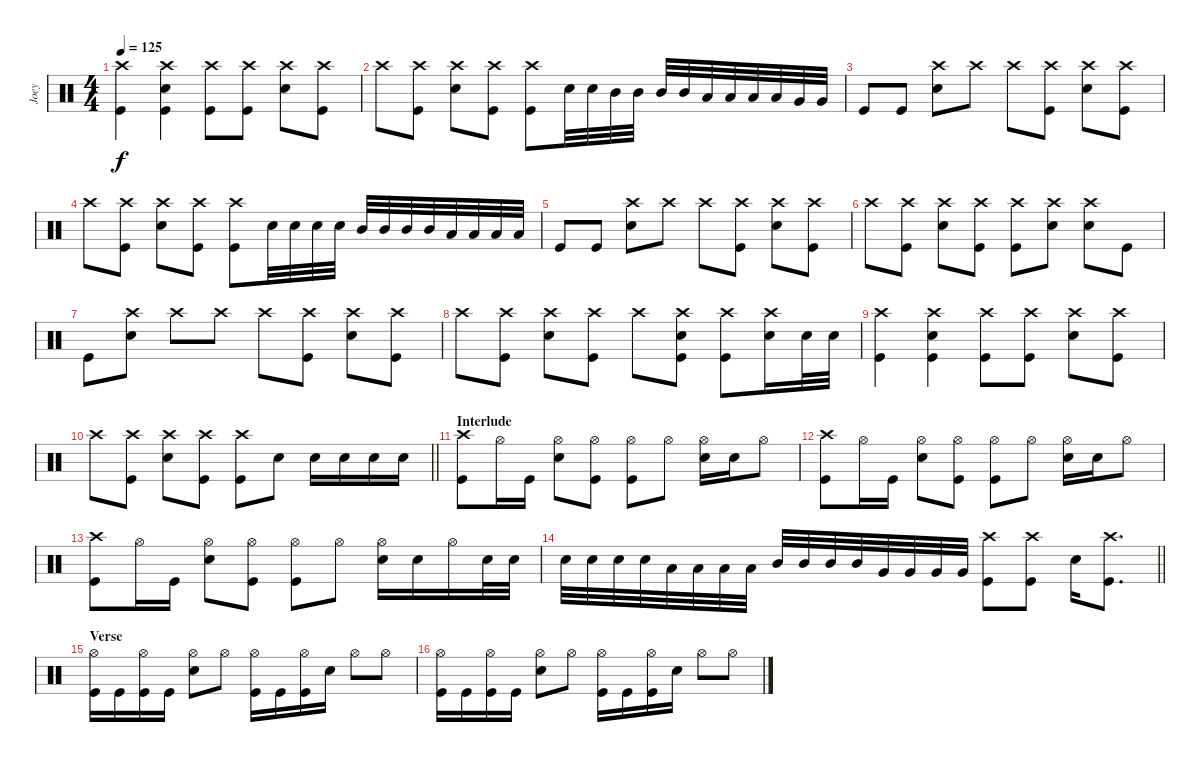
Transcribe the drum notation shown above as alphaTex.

\track ("Joey" "Joey") {instrument percussion}
\staff {score}
\articulation defaults
\ts (4 4)
\tempo 125
\clef neutral
\ks c
("Crash high (hit)" "Kick (hit)").4{dy f} ("Crash high (hit)" "Snare (hit) 2" "Kick (hit)").4 ("Crash high (hit)" "Kick (hit)").8 ("Crash high (hit)" "Kick (hit)").8 ("Crash high (hit)" "Snare (hit) 2").8 ("Crash high (hit)" "Kick (hit)").8 |
"Crash high (hit)".8 ("Crash high (hit)" "Kick (hit)").8 ("Crash high (hit)" "Snare (hit) 2").8 ("Crash high (hit)" "Kick (hit)").8 ("Crash high (hit)" "Kick (hit)").8 "Snare (hit) 2".32 "Snare (hit) 2".32 "Mid Tom (hit)".32 "Mid Tom (hit)".32 "Mid Tom (hit)".32 "Mid Tom (hit)".32 "Low Tom (hit)".32 "Low Tom (hit)".32 "Low Tom (hit)".32 "Low Tom (hit)".32 "Very Low Tom (hit)".32 "Very Low Tom (hit)".32 |
"Kick (hit)".8 "Kick (hit)".8 ("Crash high (hit)" "Snare (hit) 2").8 "Crash high (hit)".8 "Crash high (hit)".8 ("Crash high (hit)" "Kick (hit)").8 ("Crash high (hit)" "Snare (hit) 2").8 ("Crash high (hit)" "Kick (hit)").8 |
"Crash high (hit)".8 ("Crash high (hit)" "Kick (hit)").8 ("Crash high (hit)" "Snare (hit) 2").8 ("Crash high (hit)" "Kick (hit)").8 ("Crash high (hit)" "Kick (hit)").8 "Snare (hit) 2".32 "Snare (hit) 2".32 "Snare (hit) 2".32 "Snare (hit) 2".32 "Mid Tom (hit)".32 "Mid Tom (hit)".32 "Mid Tom (hit)".32 "Mid Tom (hit)".32 "Low Tom (hit)".32 "Low Tom (hit)".32 "Low Tom (hit)".32 "Low Tom (hit)".32 |
"Kick (hit)".8 "Kick (hit)".8 ("Crash high (hit)" "Snare (hit) 2").8 "Crash high (hit)".8 "Crash high (hit)".8 ("Crash high (hit)" "Kick (hit)").8 ("Crash high (hit)" "Snare (hit) 2").8 ("Crash high (hit)" "Kick (hit)").8 |
"Crash high (hit)".8 ("Crash high (hit)" "Kick (hit)").8 ("Crash high (hit)" "Snare (hit) 2").8 ("Crash high (hit)" "Kick (hit)").8 ("Crash high (hit)" "Kick (hit)").8 ("Crash high (hit)" "Snare (hit) 2").8 ("Crash high (hit)" "Snare (hit) 2").8 "Kick (hit)".8 |
"Kick (hit)".8 ("Crash high (hit)" "Snare (hit) 2").8 "Crash high (hit)".8 "Crash high (hit)".8 "Crash high (hit)".8 ("Crash high (hit)" "Kick (hit)").8 ("Crash high (hit)" "Snare (hit) 2").8 ("Crash high (hit)" "Kick (hit)").8 |
"Crash high (hit)".8 ("Crash high (hit)" "Kick (hit)").8 ("Crash high (hit)" "Snare (hit) 2").8 ("Crash high (hit)" "Kick (hit)").8 "Crash high (hit)".8 ("Crash high (hit)" "Snare (hit) 2" "Kick (hit)").8 ("Crash high (hit)" "Kick (hit)").8 ("Crash high (hit)" "Snare (hit) 2").16 "Snare (hit) 2".32 "Snare (hit) 2".32 |
("Crash high (hit)" "Kick (hit)").4 ("Crash high (hit)" "Snare (hit) 2" "Kick (hit)").4 ("Crash high (hit)" "Kick (hit)").8 ("Crash high (hit)" "Kick (hit)").8 ("Crash high (hit)" "Snare (hit) 2").8 ("Crash high (hit)" "Kick (hit)").8 |
\barLineRight lightlight "Crash high (hit)".8
("Crash high (hit)" "Kick (hit)").8 ("Crash high (hit)" "Snare (hit) 2").8 ("Crash high (hit)" "Kick (hit)").8 ("Crash high (hit)" "Kick (hit)").8 "Snare (hit) 2".8 "Snare (hit) 2".16 "Snare (hit) 2".16 "Snare (hit) 2".16 "Snare (hit) 2".16 |
\section ("" "Interlude")
("Crash high (hit)" "Kick (hit)").8 "Hi-Hat (open)".16 "Kick (hit)".16 ("Hi-Hat (open)" "Snare (hit) 2").8 ("Hi-Hat (open)" "Kick (hit)").8 ("Hi-Hat (open)" "Kick (hit)").8 "Hi-Hat (open)".8 ("Hi-Hat (open)" "Snare (hit) 2").16 "Snare (hit) 2".16 "Hi-Hat (open)".8 |
("Crash high (hit)" "Kick (hit)").8 "Hi-Hat (open)".16 "Kick (hit)".16 ("Hi-Hat (open)" "Snare (hit) 2").8 ("Hi-Hat (open)" "Kick (hit)").8 ("Hi-Hat (open)" "Kick (hit)").8 "Hi-Hat (open)".8 ("Hi-Hat (open)" "Snare (hit) 2").16 "Snare (hit) 2".16 "Hi-Hat (open)".8 |
("Crash high (hit)" "Kick (hit)").8 "Hi-Hat (open)".16 "Kick (hit)".16 ("Hi-Hat (open)" "Snare (hit) 2").8 ("Hi-Hat (open)" "Kick (hit)").8 ("Hi-Hat (open)" "Kick (hit)").8 "Hi-Hat (open)".8 ("Hi-Hat (open)" "Snare (hit) 2").16 "Snare (hit) 2".16 "Hi-Hat (open)".16 "Snare (hit) 2".32 "Snare (hit) 2".32 |
\barLineRight lightlight "Snare (hit) 2".32 "Snare (hit) 2".32 "Snare (hit) 2".32 "Snare (hit) 2".32 "Low Tom (hit)".32 "Low Tom (hit)".32 "Low Tom (hit)".32 "Low Tom (hit)".32 "Mid Tom (hit)".32 "Mid Tom (hit)".32 "Mid Tom (hit)".32 "Mid Tom (hit)".32 "Very Low Tom (hit)".32 "Very Low Tom (hit)".32 "Very Low Tom (hit)".32 "Very Low Tom (hit)".32
("Crash high (hit)" "Kick (hit)").8 ("Crash high (hit)" "Kick (hit)").8 "Snare (hit) 2".16 ("Crash high (hit)" "Kick (hit)").8{d} |
\section ("" "Verse")
("Hi-Hat (open)" "Kick (hit)").16 "Kick (hit)".16 ("Hi-Hat (open)" "Kick (hit)").16 "Kick (hit)".16 ("Hi-Hat (open)" "Snare (hit) 2").8 "Hi-Hat (open)".8 ("Hi-Hat (open)" "Kick (hit)").16 "Kick (hit)".16 ("Hi-Hat (open)" "Kick (hit)").16 "Snare (hit) 2".16 "Hi-Hat (open)".8 "Hi-Hat (open)".8 |
("Hi-Hat (open)" "Kick (hit)").16 "Kick (hit)".16 ("Hi-Hat (open)" "Kick (hit)").16 "Kick (hit)".16 ("Hi-Hat (open)" "Snare (hit) 2").8 "Hi-Hat (open)".8 ("Hi-Hat (open)" "Kick (hit)").16 "Kick (hit)".16 ("Hi-Hat (open)" "Kick (hit)").16 "Snare (hit) 2".16 "Hi-Hat (open)".8 "Hi-Hat (open)".8
